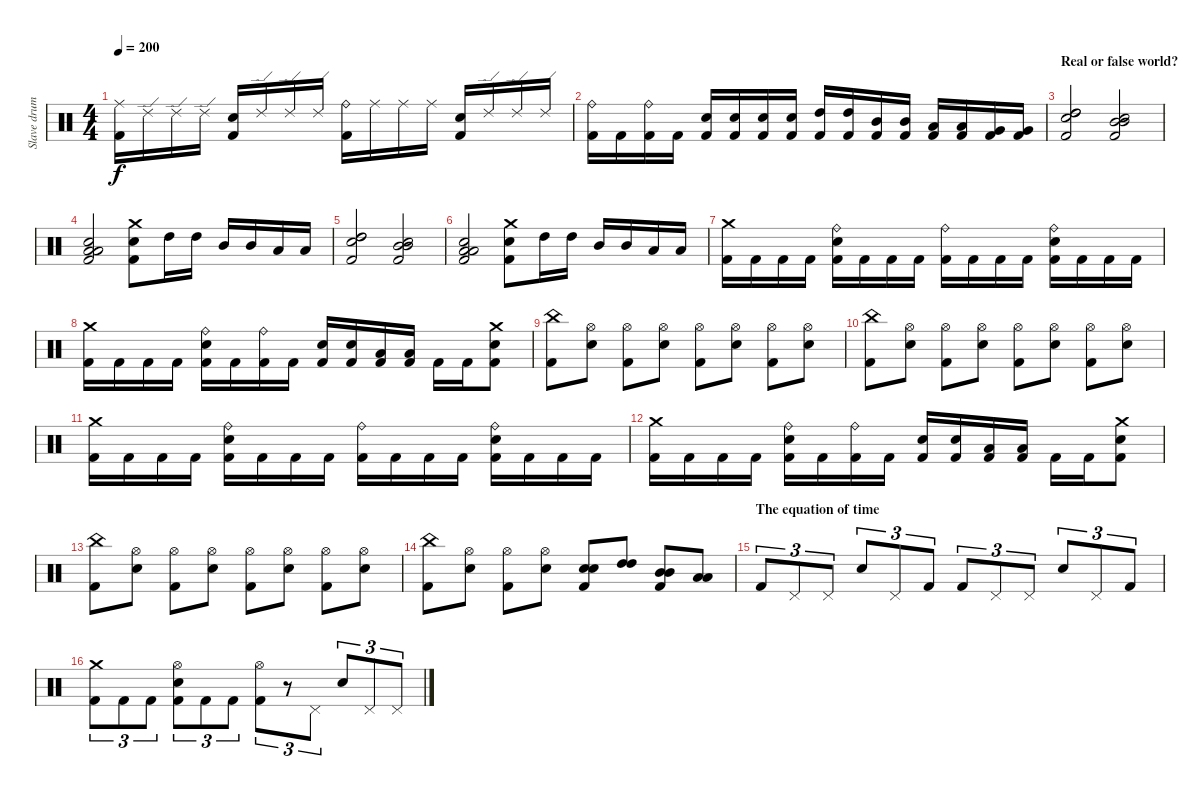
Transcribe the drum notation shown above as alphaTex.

\track ("Slave drum" "Slave drum") {instrument percussion}
\staff {score}
\articulation defaults
\ts (4 4)
\tempo 200
\clef neutral
\ks c
("Ride (middle)" "Kick (hit) 2").16{dy f} "Ride (edge) 2".16 "Ride (edge) 2".16 "Ride (edge) 2".16 ("Electric Snare (hit)" "Kick (hit) 2").16 "Ride (edge) 2".16 "Ride (edge) 2".16 "Ride (edge) 2".16 ("Ride (bell)" "Kick (hit) 2").16 "Ride (middle)".16 "Ride (middle)".16 "Ride (middle)".16 ("Electric Snare (hit)" "Kick (hit) 2").16 "Ride (edge) 2".16 "Ride (edge) 2".16 "Ride (edge) 2".16 |
("Ride (bell)" "Kick (hit) 2").16 "Kick (hit) 2".16 ("Ride (bell)" "Kick (hit) 2").16 "Kick (hit) 2".16 ("Electric Snare (hit)" "Kick (hit) 2").16 ("Electric Snare (hit)" "Kick (hit) 2").16 ("Electric Snare (hit)" "Kick (hit) 2").16 ("Electric Snare (hit)" "Kick (hit) 2").16 ("High Tom (hit)" "Kick (hit) 2").16 ("High Tom (hit)" "Kick (hit) 2").16 ("Mid Tom (hit)" "Kick (hit) 2").16 ("Mid Tom (hit)" "Kick (hit) 2").16 ("Low Tom (hit)" "Kick (hit) 2").16 ("Low Tom (hit)" "Kick (hit) 2").16 ("Very Low Tom (hit)" "Kick (hit) 2").16 ("Very Low Tom (hit)" "Kick (hit) 2").16 |
\section ("" "Real or false world?")
("High Tom (hit)" "High Tom (hit)" "Electric Snare (hit)" "Kick (hit) 2").2 ("Mid Tom (hit)" "Mid Tom (hit)" "Electric Snare (hit)" "Kick (hit) 2").2 |
("Low Tom (hit)" "Low Tom (hit)" "Electric Snare (hit)" "Kick (hit) 2").2 ("Crash medium (hit)" "Electric Snare (hit)" "Kick (hit) 2").8 "High Tom (hit)".16 "High Tom (hit)".16 "Mid Tom (hit)".16 "Mid Tom (hit)".16 "Low Tom (hit)".16 "Low Tom (hit)".16 |
("High Tom (hit)" "High Tom (hit)" "Electric Snare (hit)" "Kick (hit) 2").2 ("Mid Tom (hit)" "Mid Tom (hit)" "Electric Snare (hit)" "Kick (hit) 2").2 |
("Low Tom (hit)" "Low Tom (hit)" "Electric Snare (hit)" "Kick (hit) 2").2 ("Crash medium (hit)" "Electric Snare (hit)" "Kick (hit) 2").8 "High Tom (hit)".16 "High Tom (hit)".16 "Mid Tom (hit)".16 "Mid Tom (hit)".16 "Low Tom (hit)".16 "Low Tom (hit)".16 |
("Crash medium (hit)" "Kick (hit) 2").16 "Kick (hit) 2".16 "Kick (hit) 2".16 "Kick (hit) 2".16 ("Ride (bell)" "Electric Snare (hit)" "Kick (hit) 2").16 "Kick (hit) 2".16 "Kick (hit) 2".16 "Kick (hit) 2".16 ("Ride (bell)" "Kick (hit) 2").16 "Kick (hit) 2".16 "Kick (hit) 2".16 "Kick (hit) 2".16 ("Ride (bell)" "Electric Snare (hit)" "Kick (hit) 2").16 "Kick (hit) 2".16 "Kick (hit) 2".16 "Kick (hit) 2".16 |
("Crash medium (hit)" "Kick (hit) 2").16 "Kick (hit) 2".16 "Kick (hit) 2".16 "Kick (hit) 2".16 ("Ride (bell)" "Electric Snare (hit)" "Kick (hit) 2").16 "Kick (hit) 2".16 ("Ride (bell)" "Kick (hit) 2").16 "Kick (hit) 2".16 ("Electric Snare (hit)" "Kick (hit) 2").16 ("Electric Snare (hit)" "Kick (hit) 2").16 ("Low Tom (hit)" "Kick (hit) 2").16 ("Low Tom (hit)" "Kick (hit) 2").16 "Kick (hit) 2".16 "Kick (hit) 2".16 ("Crash medium (hit)" "Electric Snare (hit)" "Kick (hit) 2").8 |
("China (hit)" "Kick (hit) 2").8 ("Hi-Hat (open)" "Electric Snare (hit)").8 ("Hi-Hat (open)" "Kick (hit) 2").8 ("Hi-Hat (open)" "Electric Snare (hit)").8 ("Hi-Hat (open)" "Kick (hit) 2").8 ("Hi-Hat (open)" "Electric Snare (hit)").8 ("Hi-Hat (open)" "Kick (hit) 2").8 ("Hi-Hat (open)" "Electric Snare (hit)").8 |
("China (hit)" "Kick (hit) 2").8 ("Hi-Hat (open)" "Electric Snare (hit)").8 ("Hi-Hat (open)" "Kick (hit) 2").8 ("Hi-Hat (open)" "Electric Snare (hit)").8 ("Hi-Hat (open)" "Kick (hit) 2").8 ("Hi-Hat (open)" "Electric Snare (hit)").8 ("Hi-Hat (open)" "Kick (hit) 2").8 ("Hi-Hat (open)" "Electric Snare (hit)").8 |
("Crash medium (hit)" "Kick (hit) 2").16 "Kick (hit) 2".16 "Kick (hit) 2".16 "Kick (hit) 2".16 ("Ride (bell)" "Electric Snare (hit)" "Kick (hit) 2").16 "Kick (hit) 2".16 "Kick (hit) 2".16 "Kick (hit) 2".16 ("Ride (bell)" "Kick (hit) 2").16 "Kick (hit) 2".16 "Kick (hit) 2".16 "Kick (hit) 2".16 ("Ride (bell)" "Electric Snare (hit)" "Kick (hit) 2").16 "Kick (hit) 2".16 "Kick (hit) 2".16 "Kick (hit) 2".16 |
("Crash medium (hit)" "Kick (hit) 2").16 "Kick (hit) 2".16 "Kick (hit) 2".16 "Kick (hit) 2".16 ("Ride (bell)" "Electric Snare (hit)" "Kick (hit) 2").16 "Kick (hit) 2".16 ("Ride (bell)" "Kick (hit) 2").16 "Kick (hit) 2".16 ("Electric Snare (hit)" "Kick (hit) 2").16 ("Electric Snare (hit)" "Kick (hit) 2").16 ("Low Tom (hit)" "Kick (hit) 2").16 ("Low Tom (hit)" "Kick (hit) 2").16 "Kick (hit) 2".16 "Kick (hit) 2".16 ("Crash medium (hit)" "Electric Snare (hit)" "Kick (hit) 2").8 |
("China (hit)" "Kick (hit) 2").8 ("Hi-Hat (open)" "Electric Snare (hit)").8 ("Hi-Hat (open)" "Kick (hit) 2").8 ("Hi-Hat (open)" "Electric Snare (hit)").8 ("Hi-Hat (open)" "Kick (hit) 2").8 ("Hi-Hat (open)" "Electric Snare (hit)").8 ("Hi-Hat (open)" "Kick (hit) 2").8 ("Hi-Hat (open)" "Electric Snare (hit)").8 |
("China (hit)" "Kick (hit) 2").8 ("Hi-Hat (open)" "Electric Snare (hit)").8 ("Hi-Hat (open)" "Kick (hit) 2").8 ("Hi-Hat (open)" "Electric Snare (hit)").8 ("Electric Snare (hit)" "Electric Snare (hit)" "Kick (hit) 2").8 ("High Tom (hit)" "High Tom (hit)").8 ("Mid Tom (hit)" "Mid Tom (hit)" "Kick (hit) 2").8 ("Low Tom (hit)" "Low Tom (hit)").8 |
\section ("" "The equation of time")
"Kick (hit) 2".8{tu (3 2)} "Pedal Hi-Hat (hit)".8{tu (3 2)} "Pedal Hi-Hat (hit)".8{tu (3 2)} "Electric Snare (hit)".8{tu (3 2)} "Pedal Hi-Hat (hit)".8{tu (3 2)} "Kick (hit) 2".8{tu (3 2)} "Kick (hit) 2".8{tu (3 2)} "Pedal Hi-Hat (hit)".8{tu (3 2)} "Pedal Hi-Hat (hit)".8{tu (3 2)} "Electric Snare (hit)".8{tu (3 2)} "Pedal Hi-Hat (hit)".8{tu (3 2)} "Kick (hit) 2".8{tu (3 2)} |
("Crash medium (hit)" "Kick (hit) 2").8{tu (3 2)} "Kick (hit) 2".8{tu (3 2)} "Kick (hit) 2".8{tu (3 2)} ("Hi-Hat (open)" "Electric Snare (hit)" "Kick (hit) 2").8{tu (3 2)} "Kick (hit) 2".8{tu (3 2)} "Kick (hit) 2".8{tu (3 2)} ("Hi-Hat (open)" "Kick (hit) 2").8{tu (3 2)} r.8{tu (3 2)} "Pedal Hi-Hat (hit)".8{tu (3 2)} "Electric Snare (hit)".8{tu (3 2)} "Pedal Hi-Hat (hit)".8{tu (3 2)} "Pedal Hi-Hat (hit)".8{tu (3 2)}
